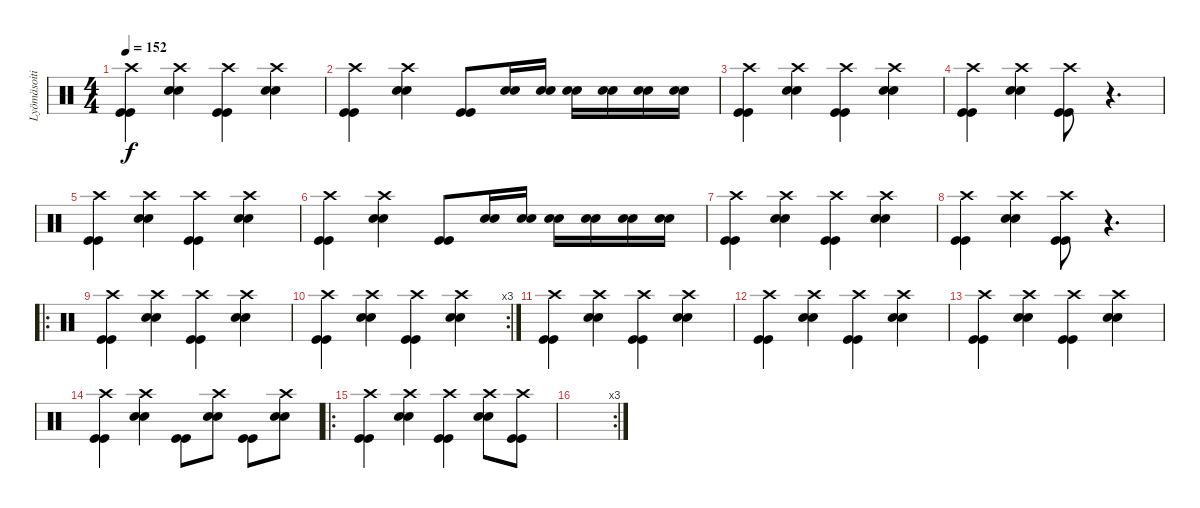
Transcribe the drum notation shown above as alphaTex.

\track ("Lyömäsoitin" "Lyömäsoiti") {instrument percussion}
\staff {score}
\articulation defaults
\ts (4 4)
\tempo 152
\clef neutral
\ks c
("Crash high (hit)" "Kick (hit)" "Kick (hit)").4{dy f} ("Crash high (hit)" "Snare (hit) 2" "Snare (hit) 2").4 ("Crash high (hit)" "Kick (hit)" "Kick (hit)").4 ("Crash high (hit)" "Snare (hit) 2" "Snare (hit) 2").4 |
("Crash high (hit)" "Kick (hit)" "Kick (hit)").4 ("Crash high (hit)" "Snare (hit) 2" "Snare (hit) 2").4 ("Kick (hit)" "Kick (hit)").8 ("Snare (hit) 2" "Snare (hit) 2").16 ("Snare (hit) 2" "Snare (hit) 2").16 ("Snare (hit) 2" "Snare (hit) 2").16 ("Snare (hit) 2" "Snare (hit) 2").16 ("Snare (hit) 2" "Snare (hit) 2").16 ("Snare (hit) 2" "Snare (hit) 2").16 |
("Crash high (hit)" "Kick (hit)" "Kick (hit)").4 ("Crash high (hit)" "Snare (hit) 2" "Snare (hit) 2").4 ("Crash high (hit)" "Kick (hit)" "Kick (hit)").4 ("Crash high (hit)" "Snare (hit) 2" "Snare (hit) 2").4 |
("Crash high (hit)" "Kick (hit)" "Kick (hit)").4 ("Crash high (hit)" "Snare (hit) 2" "Snare (hit) 2").4 ("Crash high (hit)" "Kick (hit)" "Kick (hit)").8 r.4{d} |
("Crash high (hit)" "Kick (hit)" "Kick (hit)").4 ("Crash high (hit)" "Snare (hit) 2" "Snare (hit) 2").4 ("Crash high (hit)" "Kick (hit)" "Kick (hit)").4 ("Crash high (hit)" "Snare (hit) 2" "Snare (hit) 2").4 |
("Crash high (hit)" "Kick (hit)" "Kick (hit)").4 ("Crash high (hit)" "Snare (hit) 2" "Snare (hit) 2").4 ("Kick (hit)" "Kick (hit)").8 ("Snare (hit) 2" "Snare (hit) 2").16 ("Snare (hit) 2" "Snare (hit) 2").16 ("Snare (hit) 2" "Snare (hit) 2").16 ("Snare (hit) 2" "Snare (hit) 2").16 ("Snare (hit) 2" "Snare (hit) 2").16 ("Snare (hit) 2" "Snare (hit) 2").16 |
("Crash high (hit)" "Kick (hit)" "Kick (hit)").4 ("Crash high (hit)" "Snare (hit) 2" "Snare (hit) 2").4 ("Crash high (hit)" "Kick (hit)" "Kick (hit)").4 ("Crash high (hit)" "Snare (hit) 2" "Snare (hit) 2").4 |
("Crash high (hit)" "Kick (hit)" "Kick (hit)").4 ("Crash high (hit)" "Snare (hit) 2" "Snare (hit) 2").4 ("Crash high (hit)" "Kick (hit)" "Kick (hit)").8 r.4{d} |
\ro
("Crash high (hit)" "Kick (hit)" "Kick (hit)").4 ("Crash high (hit)" "Snare (hit) 2" "Snare (hit) 2").4 ("Crash high (hit)" "Kick (hit)" "Kick (hit)").4 ("Crash high (hit)" "Snare (hit) 2" "Snare (hit) 2").4 |
\rc 3
("Crash high (hit)" "Kick (hit)" "Kick (hit)").4 ("Crash high (hit)" "Snare (hit) 2" "Snare (hit) 2").4 ("Crash high (hit)" "Kick (hit)" "Kick (hit)").4 ("Crash high (hit)" "Snare (hit) 2" "Snare (hit) 2").4 |
("Crash high (hit)" "Kick (hit)" "Kick (hit)").4 ("Crash high (hit)" "Snare (hit) 2" "Snare (hit) 2").4 ("Crash high (hit)" "Kick (hit)" "Kick (hit)").4 ("Crash high (hit)" "Snare (hit) 2" "Snare (hit) 2").4 |
("Crash high (hit)" "Kick (hit)" "Kick (hit)").4 ("Crash high (hit)" "Snare (hit) 2" "Snare (hit) 2").4 ("Crash high (hit)" "Kick (hit)" "Kick (hit)").4 ("Crash high (hit)" "Snare (hit) 2" "Snare (hit) 2").4 |
("Crash high (hit)" "Kick (hit)" "Kick (hit)").4 ("Crash high (hit)" "Snare (hit) 2" "Snare (hit) 2").4 ("Crash high (hit)" "Kick (hit)" "Kick (hit)").4 ("Crash high (hit)" "Snare (hit) 2" "Snare (hit) 2").4 |
("Crash high (hit)" "Kick (hit)" "Kick (hit)").4 ("Crash high (hit)" "Snare (hit) 2" "Snare (hit) 2").4 ("Kick (hit)" "Kick (hit)").8 ("Crash high (hit)" "Snare (hit) 2" "Snare (hit) 2").8 ("Kick (hit)" "Kick (hit)").8 ("Crash high (hit)" "Snare (hit) 2" "Snare (hit) 2").8 |
\ro
("Crash high (hit)" "Kick (hit)" "Kick (hit)").4 ("Crash high (hit)" "Snare (hit) 2" "Snare (hit) 2").4 ("Crash high (hit)" "Kick (hit)" "Kick (hit)").4 ("Crash high (hit)" "Snare (hit) 2" "Snare (hit) 2").8 ("Crash high (hit)" "Kick (hit)" "Kick (hit)").8 |
\rc 3
